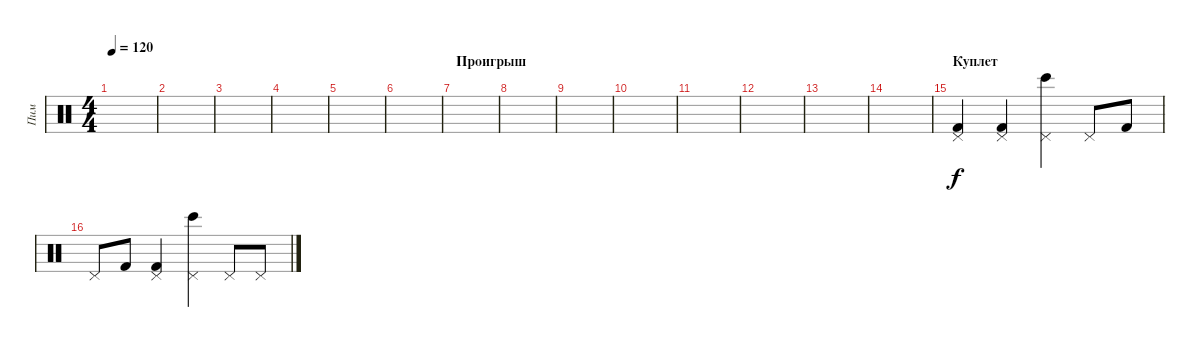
\track ("Пим" "Пим") {instrument percussion}
\staff {score}
\articulation defaults
\ts (4 4)
\tempo 120
\clef neutral
\ks c
|
|
|
|
|
|
\section ("" "Проигрыш")
|
|
|
|
|
|
|
|
\section ("" "Куплет")
("Pedal Hi-Hat (hit)" "Kick (hit) 2").4 ("Pedal Hi-Hat (hit)" "Kick (hit) 2").4 ("Pedal Hi-Hat (hit)" "Bongo High (hit)").4 "Pedal Hi-Hat (hit)".8 "Kick (hit) 2".8 |
"Pedal Hi-Hat (hit)".8 "Kick (hit) 2".8 ("Pedal Hi-Hat (hit)" "Kick (hit) 2").4 ("Pedal Hi-Hat (hit)" "Bongo High (hit)").4 "Pedal Hi-Hat (hit)".8 "Pedal Hi-Hat (hit)".8
